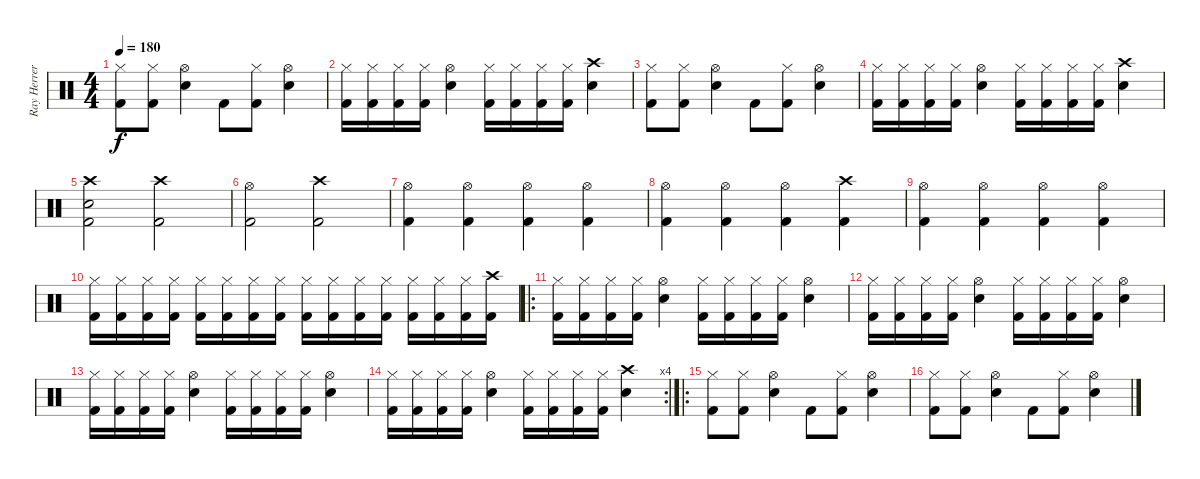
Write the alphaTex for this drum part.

\track ("Ray Herrera" "Ray Herrer") {instrument percussion}
\staff {score}
\articulation defaults
\ts (4 4)
\tempo 180
\clef neutral
\ks c
("Hi-Hat (closed)" "Kick (hit) 2").8{dy f} ("Hi-Hat (closed)" "Kick (hit) 2").8 ("Hi-Hat (open)" "Electric Snare (hit)").4 "Kick (hit) 2".8 ("Hi-Hat (closed)" "Kick (hit) 2").8 ("Hi-Hat (open)" "Electric Snare (hit)").4 |
("Hi-Hat (closed)" "Kick (hit) 2").16 ("Hi-Hat (closed)" "Kick (hit) 2").16 ("Hi-Hat (closed)" "Kick (hit) 2").16 ("Hi-Hat (closed)" "Kick (hit) 2").16 ("Hi-Hat (open)" "Electric Snare (hit)").4 ("Hi-Hat (closed)" "Kick (hit) 2").16 ("Hi-Hat (closed)" "Kick (hit) 2").16 ("Hi-Hat (closed)" "Kick (hit) 2").16 ("Hi-Hat (closed)" "Kick (hit) 2").16 ("Crash high (hit)" "Electric Snare (hit)").4 |
("Hi-Hat (closed)" "Kick (hit) 2").8 ("Hi-Hat (closed)" "Kick (hit) 2").8 ("Hi-Hat (open)" "Electric Snare (hit)").4 "Kick (hit) 2".8 ("Hi-Hat (closed)" "Kick (hit) 2").8 ("Hi-Hat (open)" "Electric Snare (hit)").4 |
("Hi-Hat (closed)" "Kick (hit) 2").16 ("Hi-Hat (closed)" "Kick (hit) 2").16 ("Hi-Hat (closed)" "Kick (hit) 2").16 ("Hi-Hat (closed)" "Kick (hit) 2").16 ("Hi-Hat (open)" "Electric Snare (hit)").4 ("Hi-Hat (closed)" "Kick (hit) 2").16 ("Hi-Hat (closed)" "Kick (hit) 2").16 ("Hi-Hat (closed)" "Kick (hit) 2").16 ("Hi-Hat (closed)" "Kick (hit) 2").16 ("Crash high (hit)" "Electric Snare (hit)").4 |
("Crash high (hit)" "Electric Snare (hit)" "Kick (hit) 2").2 ("Crash high (hit)" "Kick (hit) 2").2 |
("Hi-Hat (open)" "Kick (hit) 2").2 ("Crash high (hit)" "Kick (hit) 2").2 |
("Hi-Hat (open)" "Kick (hit) 2").4 ("Hi-Hat (open)" "Kick (hit) 2").4 ("Hi-Hat (open)" "Kick (hit) 2").4 ("Hi-Hat (open)" "Kick (hit) 2").4 |
("Hi-Hat (open)" "Kick (hit) 2").4 ("Hi-Hat (open)" "Kick (hit) 2").4 ("Hi-Hat (open)" "Kick (hit) 2").4 ("Crash high (hit)" "Kick (hit) 2").4 |
("Hi-Hat (open)" "Kick (hit) 2").4 ("Hi-Hat (open)" "Kick (hit) 2").4 ("Hi-Hat (open)" "Kick (hit) 2").4 ("Hi-Hat (open)" "Kick (hit) 2").4 |
("Hi-Hat (closed)" "Kick (hit) 2").16 ("Hi-Hat (closed)" "Kick (hit) 2").16 ("Hi-Hat (closed)" "Kick (hit) 2").16 ("Hi-Hat (closed)" "Kick (hit) 2").16 ("Hi-Hat (closed)" "Kick (hit) 2").16 ("Hi-Hat (closed)" "Kick (hit) 2").16 ("Hi-Hat (closed)" "Kick (hit) 2").16 ("Hi-Hat (closed)" "Kick (hit) 2").16 ("Hi-Hat (closed)" "Kick (hit) 2").16 ("Hi-Hat (closed)" "Kick (hit) 2").16 ("Hi-Hat (closed)" "Kick (hit) 2").16 ("Hi-Hat (closed)" "Kick (hit) 2").16 ("Hi-Hat (closed)" "Kick (hit) 2").16 ("Hi-Hat (closed)" "Kick (hit) 2").16 ("Hi-Hat (closed)" "Kick (hit) 2").16 ("Crash high (hit)" "Kick (hit) 2").16 |
\ro
("Hi-Hat (closed)" "Kick (hit) 2").16 ("Hi-Hat (closed)" "Kick (hit) 2").16 ("Hi-Hat (closed)" "Kick (hit) 2").16 ("Hi-Hat (closed)" "Kick (hit) 2").16 ("Hi-Hat (open)" "Electric Snare (hit)").4 ("Hi-Hat (closed)" "Kick (hit) 2").16 ("Hi-Hat (closed)" "Kick (hit) 2").16 ("Hi-Hat (closed)" "Kick (hit) 2").16 ("Hi-Hat (closed)" "Kick (hit) 2").16 ("Hi-Hat (open)" "Electric Snare (hit)").4 |
("Hi-Hat (closed)" "Kick (hit) 2").16 ("Hi-Hat (closed)" "Kick (hit) 2").16 ("Hi-Hat (closed)" "Kick (hit) 2").16 ("Hi-Hat (closed)" "Kick (hit) 2").16 ("Hi-Hat (open)" "Electric Snare (hit)").4 ("Hi-Hat (closed)" "Kick (hit) 2").16 ("Hi-Hat (closed)" "Kick (hit) 2").16 ("Hi-Hat (closed)" "Kick (hit) 2").16 ("Hi-Hat (closed)" "Kick (hit) 2").16 ("Hi-Hat (open)" "Electric Snare (hit)").4 |
("Hi-Hat (closed)" "Kick (hit) 2").16 ("Hi-Hat (closed)" "Kick (hit) 2").16 ("Hi-Hat (closed)" "Kick (hit) 2").16 ("Hi-Hat (closed)" "Kick (hit) 2").16 ("Hi-Hat (open)" "Electric Snare (hit)").4 ("Hi-Hat (closed)" "Kick (hit) 2").16 ("Hi-Hat (closed)" "Kick (hit) 2").16 ("Hi-Hat (closed)" "Kick (hit) 2").16 ("Hi-Hat (closed)" "Kick (hit) 2").16 ("Hi-Hat (open)" "Electric Snare (hit)").4 |
\rc 4
("Hi-Hat (closed)" "Kick (hit) 2").16 ("Hi-Hat (closed)" "Kick (hit) 2").16 ("Hi-Hat (closed)" "Kick (hit) 2").16 ("Hi-Hat (closed)" "Kick (hit) 2").16 ("Hi-Hat (open)" "Electric Snare (hit)").4 ("Hi-Hat (closed)" "Kick (hit) 2").16 ("Hi-Hat (closed)" "Kick (hit) 2").16 ("Hi-Hat (closed)" "Kick (hit) 2").16 ("Hi-Hat (closed)" "Kick (hit) 2").16 ("Crash high (hit)" "Electric Snare (hit)").4 |
\ro
("Hi-Hat (closed)" "Kick (hit) 2").8 ("Hi-Hat (closed)" "Kick (hit) 2").8 ("Hi-Hat (open)" "Electric Snare (hit)").4 "Kick (hit) 2".8 ("Hi-Hat (closed)" "Kick (hit) 2").8 ("Hi-Hat (open)" "Electric Snare (hit)").4 |
("Hi-Hat (closed)" "Kick (hit) 2").8 ("Hi-Hat (closed)" "Kick (hit) 2").8 ("Hi-Hat (open)" "Electric Snare (hit)").4 "Kick (hit) 2".8 ("Hi-Hat (closed)" "Kick (hit) 2").8 ("Hi-Hat (open)" "Electric Snare (hit)").4
